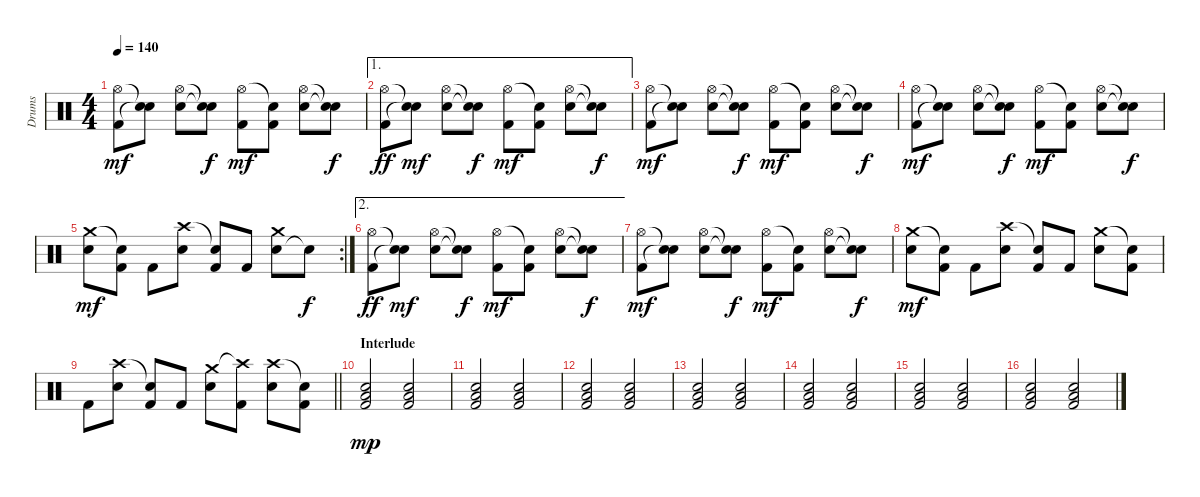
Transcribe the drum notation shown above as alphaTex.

\track ("Drums" "Drums") {instrument percussion}
\staff {score}
\articulation defaults
\ts (4 4)
\tempo 140
\clef neutral
\ks c
("Kick (hit) 2" "Hi-Hat (open)").8{dy mf} ("Snare (hit)"{t} "Snare (hit)"{t}).8 ("Snare (hit) 2" "Hi-Hat (open)").8 ("Snare (hit)"{t} "Snare (hit)"{t}).8{dy f} ("Kick (hit) 2" "Hi-Hat (open)").8{dy mf} ("Kick (hit) 2" "Snare (hit)"{t}).8 ("Snare (hit) 2" "Hi-Hat (open)").8 ("Snare (hit)"{t} "Snare (hit)"{t}).8{dy f} |
\ae 1
("Kick (hit) 2" "Hi-Hat (open)").8{dy ff} ("Snare (hit)"{t} "Snare (hit)"{t}).8{dy mf} ("Snare (hit) 2" "Hi-Hat (open)").8 ("Snare (hit)"{t} "Snare (hit)"{t}).8{dy f} ("Kick (hit) 2" "Hi-Hat (open)").8{dy mf} ("Kick (hit) 2" "Snare (hit)"{t}).8 ("Snare (hit) 2" "Hi-Hat (open)").8 ("Snare (hit)"{t} "Snare (hit)"{t}).8{dy f} |
("Kick (hit) 2" "Hi-Hat (open)").8{dy mf} ("Snare (hit)"{t} "Snare (hit)"{t}).8 ("Snare (hit) 2" "Hi-Hat (open)").8 ("Snare (hit)"{t} "Snare (hit)"{t}).8{dy f} ("Kick (hit) 2" "Hi-Hat (open)").8{dy mf} ("Kick (hit) 2" "Snare (hit)"{t}).8 ("Snare (hit) 2" "Hi-Hat (open)").8 ("Snare (hit)"{t} "Snare (hit)"{t}).8{dy f} |
("Kick (hit) 2" "Hi-Hat (open)").8{dy mf} ("Snare (hit)"{t} "Snare (hit)"{t}).8 ("Snare (hit) 2" "Hi-Hat (open)").8 ("Snare (hit)"{t} "Snare (hit)"{t}).8{dy f} ("Kick (hit) 2" "Hi-Hat (open)").8{dy mf} ("Kick (hit) 2" "Snare (hit)"{t}).8 ("Snare (hit) 2" "Hi-Hat (open)").8 ("Snare (hit)"{t} "Snare (hit)"{t}).8{dy f} |
\rc 2
("Snare (hit) 2" "Crash medium (hit)").8{dy mf} ("Kick (hit) 2" "Snare (hit)"{t}).8 "Kick (hit) 2".8 ("Snare (hit) 2" "Crash high (hit)").8 ("Kick (hit) 2" "Snare (hit)"{t}).8 "Kick (hit) 2".8 ("Snare (hit) 2" "Crash medium (hit)").8 "Snare (hit)"{t}.8{dy f} |
\ae 2
("Kick (hit) 2" "Hi-Hat (open)").8{dy ff} ("Snare (hit)"{t} "Snare (hit)"{t}).8{dy mf} ("Snare (hit) 2" "Hi-Hat (open)").8 ("Snare (hit)"{t} "Snare (hit)"{t}).8{dy f} ("Kick (hit) 2" "Hi-Hat (open)").8{dy mf} ("Kick (hit) 2" "Snare (hit)"{t}).8 ("Snare (hit) 2" "Hi-Hat (open)").8 ("Snare (hit)"{t} "Snare (hit)"{t}).8{dy f} |
("Kick (hit) 2" "Hi-Hat (open)").8{dy mf} ("Snare (hit)"{t} "Snare (hit)"{t}).8 ("Snare (hit) 2" "Hi-Hat (open)").8 ("Snare (hit)"{t} "Snare (hit)"{t}).8{dy f} ("Kick (hit) 2" "Hi-Hat (open)").8{dy mf} ("Kick (hit) 2" "Snare (hit)"{t}).8 ("Snare (hit) 2" "Hi-Hat (open)").8 ("Snare (hit)"{t} "Snare (hit)"{t}).8{dy f} |
("Snare (hit) 2" "Crash medium (hit)").8{dy mf} ("Kick (hit) 2" "Snare (hit)"{t}).8 "Kick (hit) 2".8 ("Snare (hit) 2" "Crash high (hit)").8 ("Kick (hit) 2" "Snare (hit)"{t}).8 "Kick (hit) 2".8 ("Snare (hit) 2" "Crash medium (hit)").8 ("Kick (hit) 2" "Snare (hit)"{t}).8 |
\barLineRight lightlight "Kick (hit) 2".8
("Snare (hit) 2" "Crash high (hit)").8 ("Kick (hit) 2" "Snare (hit)"{t}).8 "Kick (hit) 2".8 ("Snare (hit) 2" "Crash medium (hit)").8 ("Kick (hit) 2" "Crash high (hit)"{t}).8 ("Snare (hit) 2" "Crash high (hit)").8 ("Kick (hit) 2" "Snare (hit)"{t}).8 |
\section ("" "Interlude")
("Kick (hit) 2" "Low Floor Tom (hit)" "Hand Clap (hit)").2{dy mp} ("Kick (hit) 2" "Low Floor Tom (hit)" "Hand Clap (hit)").2 |
("Kick (hit) 2" "Low Floor Tom (hit)" "Hand Clap (hit)").2 ("Kick (hit) 2" "Low Floor Tom (hit)" "Hand Clap (hit)").2 |
("Kick (hit) 2" "Low Floor Tom (hit)" "Hand Clap (hit)").2 ("Kick (hit) 2" "Low Floor Tom (hit)" "Hand Clap (hit)").2 |
("Kick (hit) 2" "Low Floor Tom (hit)" "Hand Clap (hit)").2 ("Kick (hit) 2" "Low Floor Tom (hit)" "Hand Clap (hit)").2 |
("Kick (hit) 2" "Low Floor Tom (hit)" "Hand Clap (hit)").2 ("Kick (hit) 2" "Low Floor Tom (hit)" "Hand Clap (hit)").2 |
("Kick (hit) 2" "Low Floor Tom (hit)" "Hand Clap (hit)").2 ("Kick (hit) 2" "Low Floor Tom (hit)" "Hand Clap (hit)").2 |
("Kick (hit) 2" "Low Floor Tom (hit)" "Hand Clap (hit)").2 ("Kick (hit) 2" "Low Floor Tom (hit)" "Hand Clap (hit)").2
